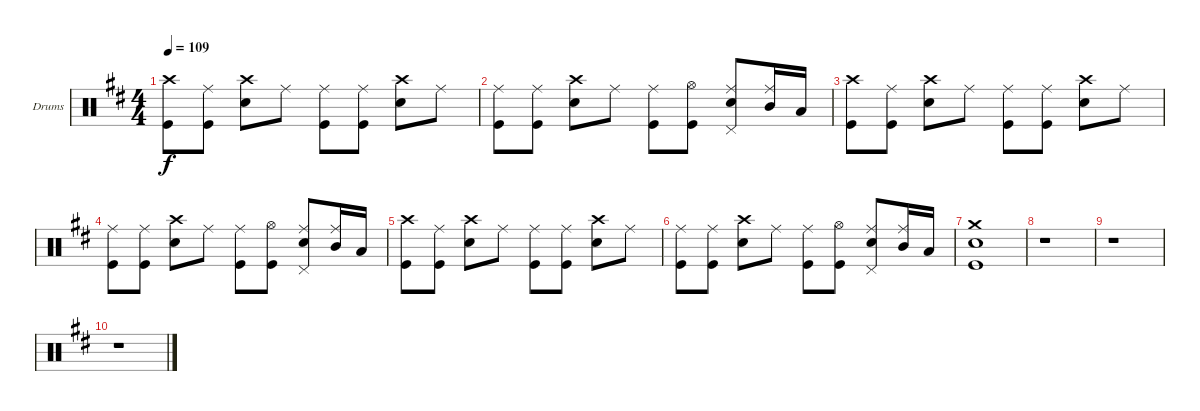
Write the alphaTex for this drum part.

\bracketExtendMode groupsimilarinstruments
\firstSystemTrackNameOrientation horizontal
\otherSystemsTrackNameOrientation horizontal
\track ("Drumkit" "Drums") {instrument percussion}
\staff {score}
\articulation defaults
\ts (4 4)
\tempo 109
\clef neutral
\ks d
("Kick (hit)" "Crash high (hit)").8{dy f} ("Kick (hit)" "Ride (middle)").8 ("Snare (hit) 2" "Crash high (hit)").8 "Ride (middle)".8 ("Kick (hit)" "Ride (middle)").8 ("Kick (hit)" "Ride (middle)").8 ("Snare (hit) 2" "Crash high (hit)").8 "Ride (middle)".8 |
("Kick (hit)" "Ride (middle)").8 ("Kick (hit)" "Ride (middle)").8 ("Snare (hit) 2" "Crash high (hit)").8 "Ride (middle)".8 ("Kick (hit)" "Ride (middle)").8 ("Kick (hit)" "Hi-Hat (open)").8 ("Snare (hit) 2" "Pedal Hi-Hat (hit)" "Ride (middle)").8 ("Ride (middle)" "Mid Tom (hit)").16 "Low Tom (hit)".16 |
("Kick (hit)" "Crash high (hit)").8 ("Kick (hit)" "Ride (middle)").8 ("Snare (hit) 2" "Crash high (hit)").8 "Ride (middle)".8 ("Kick (hit)" "Ride (middle)").8 ("Kick (hit)" "Ride (middle)").8 ("Snare (hit) 2" "Crash high (hit)").8 "Ride (middle)".8 |
("Kick (hit)" "Ride (middle)").8 ("Kick (hit)" "Ride (middle)").8 ("Snare (hit) 2" "Crash high (hit)").8 "Ride (middle)".8 ("Kick (hit)" "Ride (middle)").8 ("Kick (hit)" "Hi-Hat (open)").8 ("Snare (hit) 2" "Pedal Hi-Hat (hit)" "Ride (middle)").8 ("Ride (middle)" "Mid Tom (hit)").16 "Low Tom (hit)".16 |
("Kick (hit)" "Crash high (hit)").8 ("Kick (hit)" "Ride (middle)").8 ("Snare (hit) 2" "Crash high (hit)").8 "Ride (middle)".8 ("Kick (hit)" "Ride (middle)").8 ("Kick (hit)" "Ride (middle)").8 ("Snare (hit) 2" "Crash high (hit)").8 "Ride (middle)".8 |
("Kick (hit)" "Ride (middle)").8 ("Kick (hit)" "Ride (middle)").8 ("Snare (hit) 2" "Crash high (hit)").8 "Ride (middle)".8 ("Kick (hit)" "Ride (middle)").8 ("Kick (hit)" "Hi-Hat (open)").8 ("Snare (hit) 2" "Pedal Hi-Hat (hit)" "Ride (middle)").8 ("Ride (middle)" "Mid Tom (hit)").16 "Low Tom (hit)".16 |
("Snare (hit) 2" "Kick (hit)" "Crash medium (hit)").1 |
r.1 |
r.1 |
r.1
